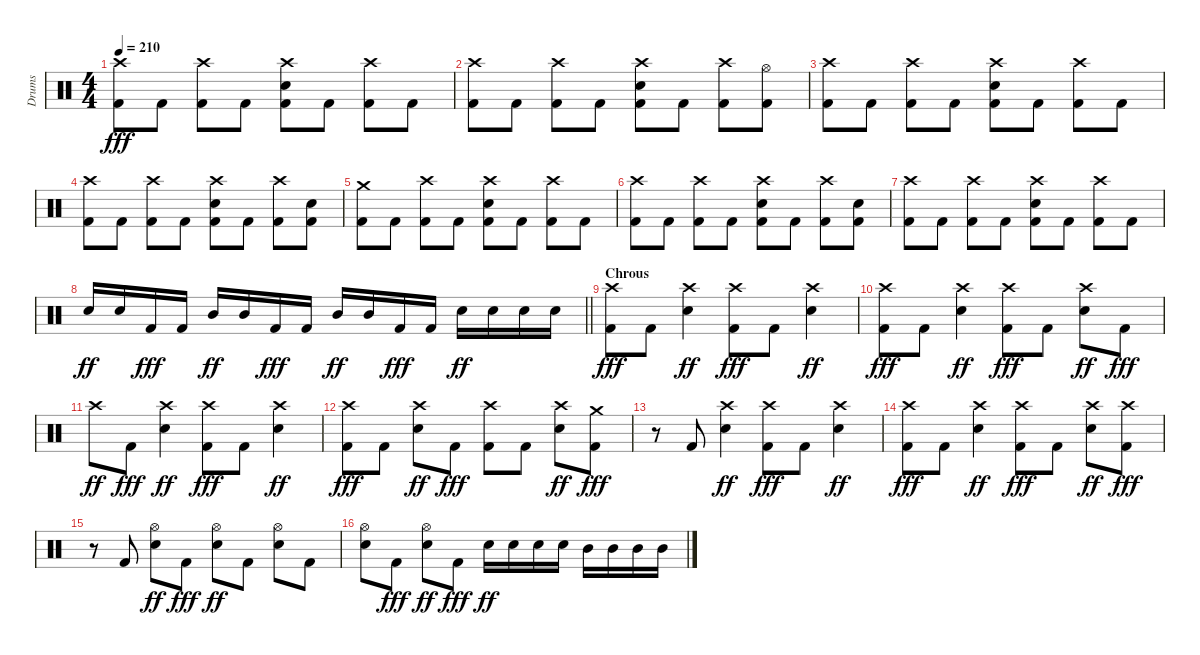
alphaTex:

\track ("Drums" "Drums") {instrument percussion}
\staff {score}
\articulation defaults
\ts (4 4)
\tempo 210
\clef neutral
\ks c
("Crash high (hit)" "Kick (hit) 2").8{dy fff} "Kick (hit) 2".8 ("Crash high (hit)" "Kick (hit) 2").8 "Kick (hit) 2".8 ("Crash high (hit)" "Snare (hit) 2" "Kick (hit) 2").8 "Kick (hit) 2".8 ("Crash high (hit)" "Kick (hit) 2").8 "Kick (hit) 2".8 |
("Crash high (hit)" "Kick (hit) 2").8 "Kick (hit) 2".8 ("Crash high (hit)" "Kick (hit) 2").8 "Kick (hit) 2".8 ("Crash high (hit)" "Snare (hit) 2" "Kick (hit) 2").8 "Kick (hit) 2".8 ("Crash high (hit)" "Kick (hit) 2").8 ("Hi-Hat (open)" "Kick (hit) 2").8 |
("Crash high (hit)" "Kick (hit) 2").8 "Kick (hit) 2".8 ("Crash high (hit)" "Kick (hit) 2").8 "Kick (hit) 2".8 ("Crash high (hit)" "Snare (hit) 2" "Kick (hit) 2").8 "Kick (hit) 2".8 ("Crash high (hit)" "Kick (hit) 2").8 "Kick (hit) 2".8 |
("Crash high (hit)" "Kick (hit) 2").8 "Kick (hit) 2".8 ("Crash high (hit)" "Kick (hit) 2").8 "Kick (hit) 2".8 ("Crash high (hit)" "Snare (hit) 2" "Kick (hit) 2").8 "Kick (hit) 2".8 ("Crash high (hit)" "Kick (hit) 2").8 ("Snare (hit) 2" "Kick (hit) 2").8 |
("Crash medium (hit)" "Kick (hit) 2").8 "Kick (hit) 2".8 ("Crash high (hit)" "Kick (hit) 2").8 "Kick (hit) 2".8 ("Crash high (hit)" "Snare (hit) 2" "Kick (hit) 2").8 "Kick (hit) 2".8 ("Crash high (hit)" "Kick (hit) 2").8 "Kick (hit) 2".8 |
("Crash high (hit)" "Kick (hit) 2").8 "Kick (hit) 2".8 ("Crash high (hit)" "Kick (hit) 2").8 "Kick (hit) 2".8 ("Crash high (hit)" "Snare (hit) 2" "Kick (hit) 2").8 "Kick (hit) 2".8 ("Crash high (hit)" "Kick (hit) 2").8 ("Snare (hit) 2" "Kick (hit) 2").8 |
("Crash high (hit)" "Kick (hit) 2").8 "Kick (hit) 2".8 ("Crash high (hit)" "Kick (hit) 2").8 "Kick (hit) 2".8 ("Crash high (hit)" "Snare (hit) 2" "Kick (hit) 2").8 "Kick (hit) 2".8 ("Crash high (hit)" "Kick (hit) 2").8 "Kick (hit) 2".8 |
\barLineRight lightlight "Snare (hit) 2".16{dy ff} "Snare (hit) 2".16 "Kick (hit) 2".16{dy fff} "Kick (hit) 2".16 "Mid Tom (hit)".16{dy ff} "Mid Tom (hit)".16 "Kick (hit) 2".16{dy fff} "Kick (hit) 2".16 "Mid Tom (hit)".16{dy ff} "Mid Tom (hit)".16 "Kick (hit) 2".16{dy fff} "Kick (hit) 2".16 "Snare (hit) 2".16{dy ff} "Snare (hit) 2".16 "Snare (hit) 2".16 "Snare (hit) 2".16
|
\section ("" "Chrous")
("Crash high (hit)" "Kick (hit) 2").8{dy fff} "Kick (hit) 2".8 ("Crash high (hit)" "Snare (hit) 2").4{dy ff} ("Crash high (hit)" "Kick (hit) 2").8{dy fff} "Kick (hit) 2".8 ("Crash high (hit)" "Snare (hit) 2").4{dy ff} |
("Crash high (hit)" "Kick (hit) 2").8{dy fff} "Kick (hit) 2".8 ("Crash high (hit)" "Snare (hit) 2").4{dy ff} ("Crash high (hit)" "Kick (hit) 2").8{dy fff} "Kick (hit) 2".8 ("Crash high (hit)" "Snare (hit) 2").8{dy ff} "Kick (hit) 2".8{dy fff} |
"Crash high (hit)".8{dy ff} "Kick (hit) 2".8{dy fff} ("Crash high (hit)" "Snare (hit) 2").4{dy ff} ("Crash high (hit)" "Kick (hit) 2").8{dy fff} "Kick (hit) 2".8 ("Crash high (hit)" "Snare (hit) 2").4{dy ff} |
("Crash high (hit)" "Kick (hit) 2").8{dy fff} "Kick (hit) 2".8 ("Crash high (hit)" "Snare (hit) 2").8{dy ff} "Kick (hit) 2".8{dy fff} ("Crash high (hit)" "Kick (hit) 2").8 "Kick (hit) 2".8 ("Crash high (hit)" "Snare (hit) 2").8{dy ff} ("Crash medium (hit)" "Kick (hit) 2").8{dy fff} |
r.8 "Kick (hit) 2".8 ("Crash high (hit)" "Snare (hit) 2").4{dy ff} ("Crash high (hit)" "Kick (hit) 2").8{dy fff} "Kick (hit) 2".8 ("Crash high (hit)" "Snare (hit) 2").4{dy ff} |
("Crash high (hit)" "Kick (hit) 2").8{dy fff} "Kick (hit) 2".8 ("Crash high (hit)" "Snare (hit) 2").4{dy ff} ("Crash high (hit)" "Kick (hit) 2").8{dy fff} "Kick (hit) 2".8 ("Crash high (hit)" "Snare (hit) 2").8{dy ff} ("Crash high (hit)" "Kick (hit) 2").8{dy fff} |
r.8 "Kick (hit) 2".8 ("Hi-Hat (open)" "Snare (hit) 2").8{dy ff} "Kick (hit) 2".8{dy fff} ("Hi-Hat (open)" "Snare (hit) 2").8{dy ff} "Kick (hit) 2".8 ("Hi-Hat (open)" "Snare (hit) 2").8 "Kick (hit) 2".8 |
("Hi-Hat (open)" "Snare (hit) 2").8 "Kick (hit) 2".8{dy fff} ("Hi-Hat (open)" "Snare (hit) 2").8{dy ff} "Kick (hit) 2".8{dy fff} "Snare (hit) 2".16{dy ff} "Snare (hit) 2".16 "Snare (hit) 2".16 "Snare (hit) 2".16 "Mid Tom (hit)".16 "Mid Tom (hit)".16 "Mid Tom (hit)".16 "Mid Tom (hit)".16
